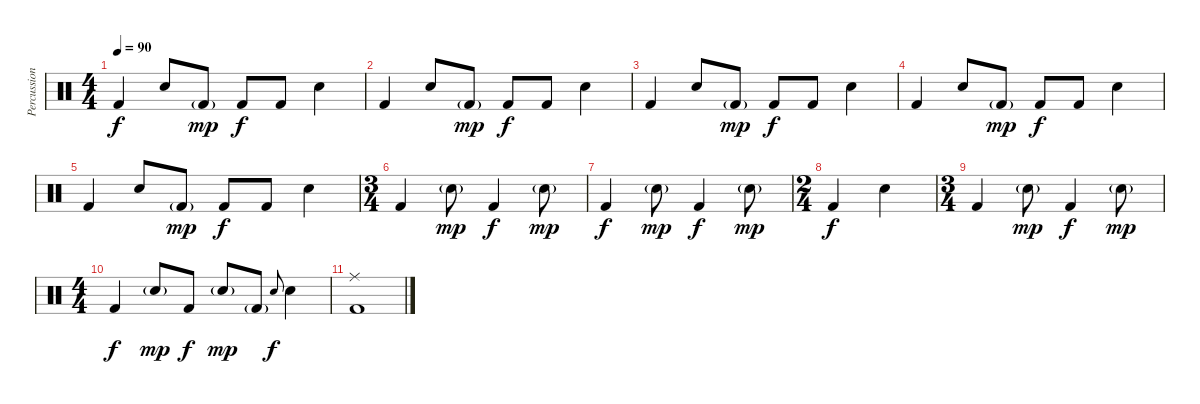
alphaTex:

\track ("Percussion" "Percussion") {instrument percussion}
\staff {score}
\articulation defaults
\ts (4 4)
\tempo 90
\clef neutral
\ks c "Kick (hit) 2".4{dy f} "Snare (hit) 2".8 "Kick (hit) 2"{g}.8{dy mp} "Kick (hit) 2".8{dy f} "Kick (hit) 2".8 "Snare (hit) 2".4
|
"Kick (hit) 2".4 "Snare (hit) 2".8 "Kick (hit) 2"{g}.8{dy mp} "Kick (hit) 2".8{dy f} "Kick (hit) 2".8 "Snare (hit) 2".4 |
"Kick (hit) 2".4 "Snare (hit) 2".8 "Kick (hit) 2"{g}.8{dy mp} "Kick (hit) 2".8{dy f} "Kick (hit) 2".8 "Snare (hit) 2".4 |
"Kick (hit) 2".4 "Snare (hit) 2".8 "Kick (hit) 2"{g}.8{dy mp} "Kick (hit) 2".8{dy f} "Kick (hit) 2".8 "Snare (hit) 2".4 |
"Kick (hit) 2".4 "Snare (hit) 2".8 "Kick (hit) 2"{g}.8{dy mp} "Kick (hit) 2".8{dy f} "Kick (hit) 2".8 "Snare (hit) 2".4 |
\ts (3 4)
"Kick (hit) 2".4 "Snare (hit) 2"{g}.8{dy mp} "Kick (hit) 2".4{dy f} "Snare (hit) 2"{g}.8{dy mp} |
"Kick (hit) 2".4{dy f} "Snare (hit) 2"{g}.8{dy mp} "Kick (hit) 2".4{dy f} "Snare (hit) 2"{g}.8{dy mp} |
\ts (2 4)
"Kick (hit) 2".4{dy f} "Snare (hit) 2".4 |
\ts (3 4)
"Kick (hit) 2".4 "Snare (hit) 2"{g}.8{dy mp} "Kick (hit) 2".4{dy f} "Snare (hit) 2"{g}.8{dy mp} |
\ts (4 4)
"Kick (hit) 2".4{dy f} "Snare (hit) 2"{g}.8{dy mp} "Kick (hit) 2".8{dy f} "Snare (hit) 2"{g}.8{dy mp} "Kick (hit) 2"{g}.8 "Snare (hit) 2".8{gr onbeat dy f} "Snare (hit) 2".4 |
("Ride (middle)" "Kick (hit) 2").1
